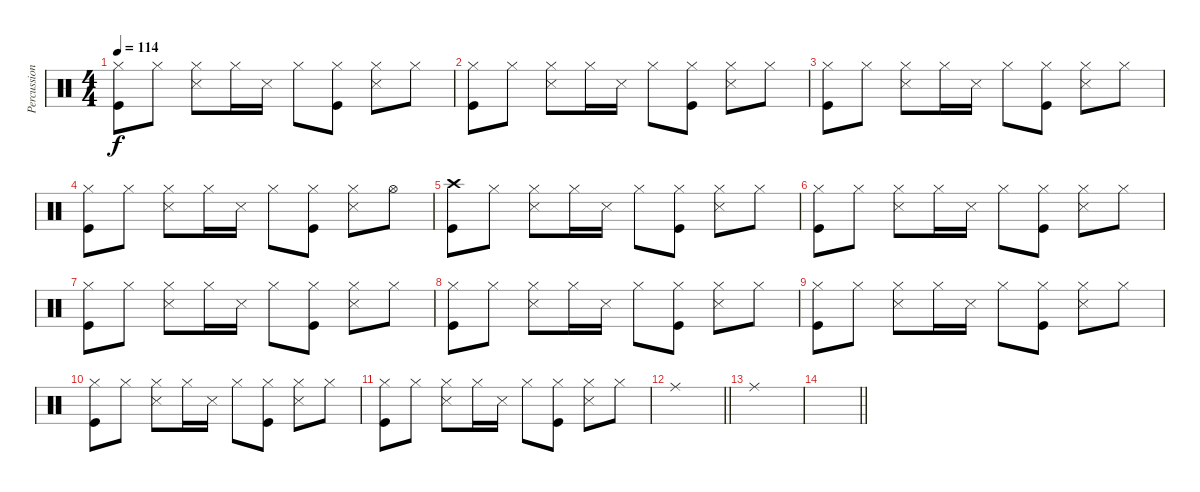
\track ("Percussion" "Percussion") {instrument percussion}
\staff {score}
\articulation defaults
\ts (4 4)
\tempo 114
\clef neutral
\ks c
("Hi-Hat (closed)" "Kick (hit)").8{dy f} "Hi-Hat (closed)".8 ("Hi-Hat (closed)" "Snare (side stick) 3").8 "Hi-Hat (closed)".16 "Snare (side stick) 3".16 "Hi-Hat (closed)".8 ("Hi-Hat (closed)" "Kick (hit)").8 ("Hi-Hat (closed)" "Snare (side stick) 3").8 "Hi-Hat (closed)".8 |
("Hi-Hat (closed)" "Kick (hit)").8 "Hi-Hat (closed)".8 ("Hi-Hat (closed)" "Snare (side stick) 3").8 "Hi-Hat (closed)".16 "Snare (side stick) 3".16 "Hi-Hat (closed)".8 ("Hi-Hat (closed)" "Kick (hit)").8 ("Hi-Hat (closed)" "Snare (side stick) 3").8 "Hi-Hat (closed)".8 |
("Hi-Hat (closed)" "Kick (hit)").8 "Hi-Hat (closed)".8 ("Hi-Hat (closed)" "Snare (side stick) 3").8 "Hi-Hat (closed)".16 "Snare (side stick) 3".16 "Hi-Hat (closed)".8 ("Hi-Hat (closed)" "Kick (hit)").8 ("Hi-Hat (closed)" "Snare (side stick) 3").8 "Hi-Hat (closed)".8 |
("Hi-Hat (closed)" "Kick (hit)").8 "Hi-Hat (closed)".8 ("Hi-Hat (closed)" "Snare (side stick) 3").8 "Hi-Hat (closed)".16 "Snare (side stick) 3".16 "Hi-Hat (closed)".8 ("Hi-Hat (closed)" "Kick (hit)").8 ("Hi-Hat (closed)" "Snare (side stick) 3").8 "Hi-Hat (open)".8 |
("Crash high (hit)" "Kick (hit)").8 "Hi-Hat (closed)".8 ("Hi-Hat (closed)" "Snare (side stick) 3").8 "Hi-Hat (closed)".16 "Snare (side stick) 3".16 "Hi-Hat (closed)".8 ("Hi-Hat (closed)" "Kick (hit)").8 ("Hi-Hat (closed)" "Snare (side stick) 3").8 "Hi-Hat (closed)".8 |
("Hi-Hat (closed)" "Kick (hit)").8 "Hi-Hat (closed)".8 ("Hi-Hat (closed)" "Snare (side stick) 3").8 "Hi-Hat (closed)".16 "Snare (side stick) 3".16 "Hi-Hat (closed)".8 ("Hi-Hat (closed)" "Kick (hit)").8 ("Hi-Hat (closed)" "Snare (side stick) 3").8 "Hi-Hat (closed)".8 |
("Hi-Hat (closed)" "Kick (hit)").8 "Hi-Hat (closed)".8 ("Hi-Hat (closed)" "Snare (side stick) 3").8 "Hi-Hat (closed)".16 "Snare (side stick) 3".16 "Hi-Hat (closed)".8 ("Hi-Hat (closed)" "Kick (hit)").8 ("Hi-Hat (closed)" "Snare (side stick) 3").8 "Hi-Hat (closed)".8 |
("Hi-Hat (closed)" "Kick (hit)").8 "Hi-Hat (closed)".8 ("Hi-Hat (closed)" "Snare (side stick) 3").8 "Hi-Hat (closed)".16 "Snare (side stick) 3".16 "Hi-Hat (closed)".8 ("Hi-Hat (closed)" "Kick (hit)").8 ("Hi-Hat (closed)" "Snare (side stick) 3").8 "Hi-Hat (closed)".8 |
("Hi-Hat (closed)" "Kick (hit)").8 "Hi-Hat (closed)".8 ("Hi-Hat (closed)" "Snare (side stick) 3").8 "Hi-Hat (closed)".16 "Snare (side stick) 3".16 "Hi-Hat (closed)".8 ("Hi-Hat (closed)" "Kick (hit)").8 ("Hi-Hat (closed)" "Snare (side stick) 3").8 "Hi-Hat (closed)".8 |
("Hi-Hat (closed)" "Kick (hit)").8 "Hi-Hat (closed)".8 ("Hi-Hat (closed)" "Snare (side stick) 3").8 "Hi-Hat (closed)".16 "Snare (side stick) 3".16 "Hi-Hat (closed)".8 ("Hi-Hat (closed)" "Kick (hit)").8 ("Hi-Hat (closed)" "Snare (side stick) 3").8 "Hi-Hat (closed)".8 |
("Hi-Hat (closed)" "Kick (hit)").8 "Hi-Hat (closed)".8 ("Hi-Hat (closed)" "Snare (side stick) 3").8 "Hi-Hat (closed)".16 "Snare (side stick) 3".16 "Hi-Hat (closed)".8 ("Hi-Hat (closed)" "Kick (hit)").8 ("Hi-Hat (closed)" "Snare (side stick) 3").8 "Hi-Hat (closed)".8 |
\barLineRight lightlight "Ride (middle)".1
|
"Ride (middle)".1 |
\barLineRight lightlight
